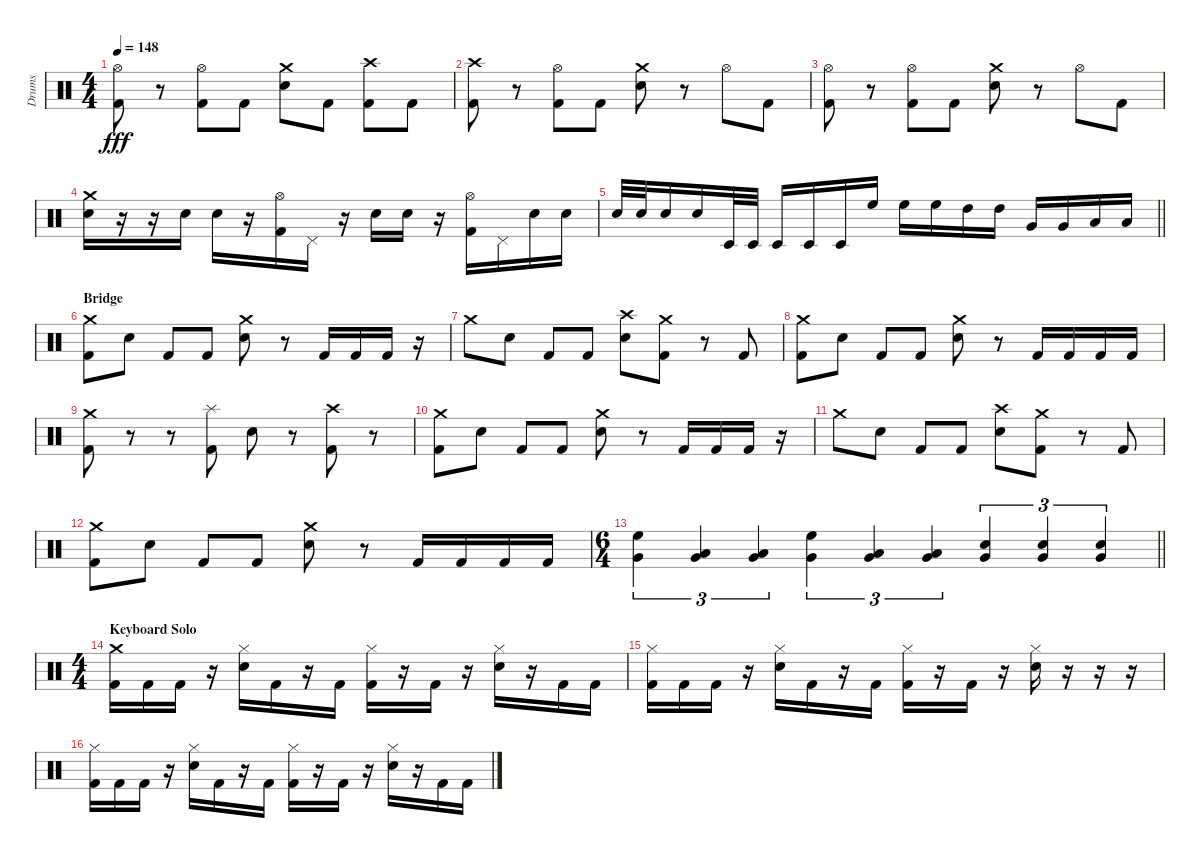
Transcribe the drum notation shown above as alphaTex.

\track ("Drums" "Drums") {instrument percussion}
\staff {score}
\articulation defaults
\ts (4 4)
\tempo 148
\clef neutral
\ks c
("Hi-Hat (open)" "Kick (hit) 2").8{dy fff} r.8 ("Hi-Hat (open)" "Kick (hit) 2").8 "Kick (hit) 2".8 ("Crash medium (hit)" "Electric Snare (hit)").8 "Kick (hit) 2".8 ("Crash high (hit)" "Kick (hit) 2").8 "Kick (hit) 2".8 |
("Crash high (hit)" "Kick (hit) 2").8 r.8 ("Hi-Hat (open)" "Kick (hit) 2").8 "Kick (hit) 2".8 ("Crash medium (hit)" "Electric Snare (hit)").8 r.8 "Hi-Hat (open)".8 "Kick (hit) 2".8 |
("Hi-Hat (open)" "Kick (hit) 2").8 r.8 ("Hi-Hat (open)" "Kick (hit) 2").8 "Kick (hit) 2".8 ("Crash medium (hit)" "Electric Snare (hit)").8 r.8 "Hi-Hat (open)".8 "Kick (hit) 2".8 |
("Crash medium (hit)" "Electric Snare (hit)").16 r.16 r.16 "Electric Snare (hit)".16 "Electric Snare (hit)".16 r.16 ("Hi-Hat (open)" "Kick (hit) 2").16 "Pedal Hi-Hat (hit)".16 r.16 "Electric Snare (hit)".16 "Electric Snare (hit)".16 r.16 ("Hi-Hat (open)" "Kick (hit) 2").16 "Pedal Hi-Hat (hit)".16 "Electric Snare (hit)".16 "Electric Snare (hit)".16 |
\barLineRight lightlight "Electric Snare (hit)".32 "Electric Snare (hit)".32 "Electric Snare (hit)".16 "Electric Snare (hit)".16 "Timbale low (hit)".32 "Timbale low (hit)".32 "Timbale low (hit)".16 "Timbale low (hit)".16 "Timbale low (hit)".16 "High Floor Tom (hit)".16 "High Floor Tom (hit)".16 "High Floor Tom (hit)".16 "High Tom (hit)".16 "High Tom (hit)".16 "Very Low Tom (hit)".16 "Very Low Tom (hit)".16 "Low Floor Tom (hit)".16 "Low Floor Tom (hit)".16
|
\section ("" "Bridge")
("Crash medium (hit)" "Kick (hit) 2").8 "Electric Snare (hit)".8 "Kick (hit) 2".8 "Kick (hit) 2".8 ("Crash medium (hit)" "Electric Snare (hit)").8 r.8 "Kick (hit) 2".16 "Kick (hit) 2".16 "Kick (hit) 2".16 r.16 |
"Crash medium (hit)".8 "Electric Snare (hit)".8 "Kick (hit) 2".8 "Kick (hit) 2".8 ("Crash high (hit)" "Electric Snare (hit)").8 ("Crash medium (hit)" "Kick (hit) 2").8 r.8 "Kick (hit) 2".8 |
("Crash medium (hit)" "Kick (hit) 2").8 "Electric Snare (hit)".8 "Kick (hit) 2".8 "Kick (hit) 2".8 ("Crash medium (hit)" "Electric Snare (hit)").8 r.8 "Kick (hit) 2".16 "Kick (hit) 2".16 "Kick (hit) 2".16 "Kick (hit) 2".16 |
("Crash medium (hit)" "Kick (hit) 2").8 r.8 r.8 ("Splash (hit)" "Kick (hit) 2").8 "Electric Snare (hit)".8 r.8 ("Crash high (hit)" "Kick (hit) 2").8 r.8 |
("Crash medium (hit)" "Kick (hit) 2").8 "Electric Snare (hit)".8 "Kick (hit) 2".8 "Kick (hit) 2".8 ("Crash medium (hit)" "Electric Snare (hit)").8 r.8 "Kick (hit) 2".16 "Kick (hit) 2".16 "Kick (hit) 2".16 r.16 |
"Crash medium (hit)".8 "Electric Snare (hit)".8 "Kick (hit) 2".8 "Kick (hit) 2".8 ("Crash high (hit)" "Electric Snare (hit)").8 ("Crash medium (hit)" "Kick (hit) 2").8 r.8 "Kick (hit) 2".8 |
("Crash medium (hit)" "Kick (hit) 2").8 "Electric Snare (hit)".8 "Kick (hit) 2".8 "Kick (hit) 2".8 ("Crash medium (hit)" "Electric Snare (hit)").8 r.8 "Kick (hit) 2".16 "Kick (hit) 2".16 "Kick (hit) 2".16 "Kick (hit) 2".16 |
\ts (6 4)
\barLineRight lightlight
("High Floor Tom (hit)" "Very Low Tom (hit)").4{tu (3 2)} ("Low Tom (hit)" "Very Low Tom (hit)").4{tu (3 2)} ("Low Floor Tom (hit)" "Very Low Tom (hit)").4{tu (3 2)} ("High Floor Tom (hit)" "Very Low Tom (hit)").4{tu (3 2)} ("Low Tom (hit)" "Very Low Tom (hit)").4{tu (3 2)} ("Low Floor Tom (hit)" "Very Low Tom (hit)").4{tu (3 2)} ("Electric Snare (hit)" "Very Low Tom (hit)").4{tu (3 2)} ("Electric Snare (hit)" "Very Low Tom (hit)").4{tu (3 2)} ("Electric Snare (hit)" "Very Low Tom (hit)").4{tu (3 2)} |
\ts (4 4)
\section ("" "Keyboard Solo")
("Crash medium (hit)" "Kick (hit) 2").16 "Kick (hit) 2".16 "Kick (hit) 2".16 r.16 ("Hi-Hat (closed)" "Electric Snare (hit)").16 "Kick (hit) 2".16 r.16 "Kick (hit) 2".16 ("Hi-Hat (closed)" "Kick (hit) 2").16 r.16 "Kick (hit) 2".16 r.16 ("Hi-Hat (closed)" "Electric Snare (hit)").16 r.16 "Kick (hit) 2".16 "Kick (hit) 2".16 |
("Hi-Hat (closed)" "Kick (hit) 2").16 "Kick (hit) 2".16 "Kick (hit) 2".16 r.16 ("Hi-Hat (closed)" "Electric Snare (hit)").16 "Kick (hit) 2".16 r.16 "Kick (hit) 2".16 ("Hi-Hat (closed)" "Kick (hit) 2").16 r.16 "Kick (hit) 2".16 r.16 ("Hi-Hat (closed)" "Electric Snare (hit)").16 r.16 r.16 r.16 |
("Hi-Hat (closed)" "Kick (hit) 2").16 "Kick (hit) 2".16 "Kick (hit) 2".16 r.16 ("Hi-Hat (closed)" "Electric Snare (hit)").16 "Kick (hit) 2".16 r.16 "Kick (hit) 2".16 ("Hi-Hat (closed)" "Kick (hit) 2").16 r.16 "Kick (hit) 2".16 r.16 ("Hi-Hat (closed)" "Electric Snare (hit)").16 r.16 "Kick (hit) 2".16 "Kick (hit) 2".16
